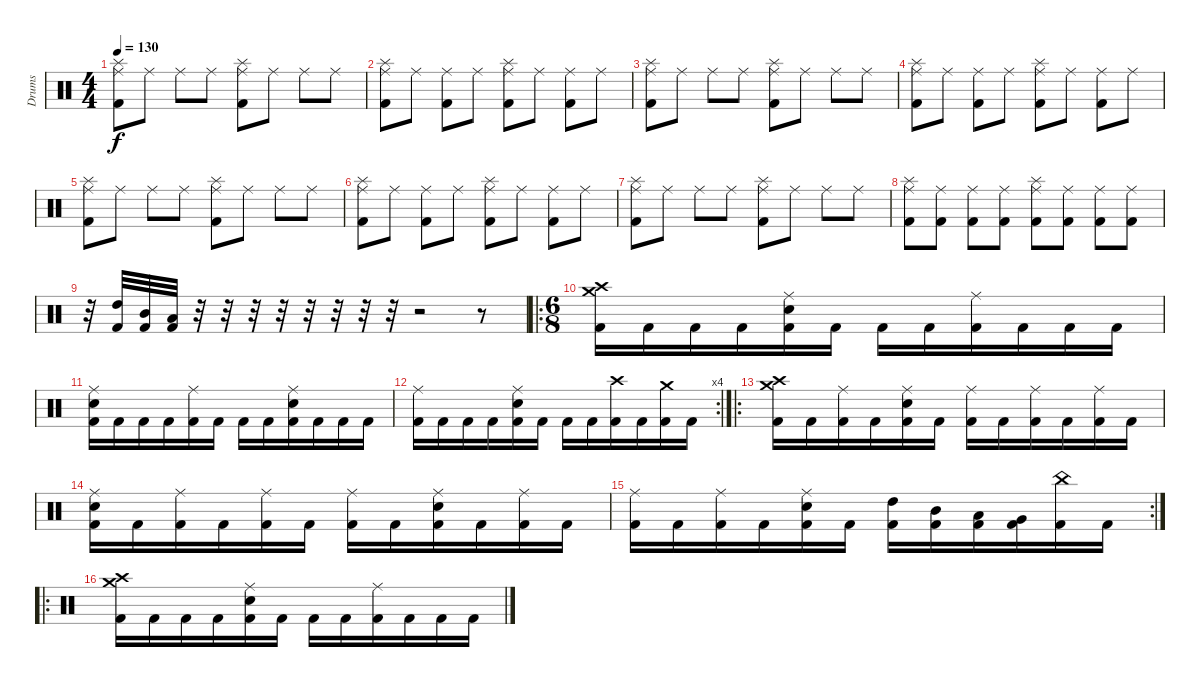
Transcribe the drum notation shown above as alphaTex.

\track ("Drums" "Drums") {instrument percussion}
\staff {score}
\articulation defaults
\ts (4 4)
\tempo 130
\clef neutral
\ks c
("Splash (hit)" "Ride (middle)" "Kick (hit) 2").8{dy f} "Ride (middle)".8 "Ride (middle)".8 "Ride (middle)".8 ("Splash (hit)" "Ride (middle)" "Kick (hit) 2").8 "Ride (middle)".8 "Ride (middle)".8 "Ride (middle)".8 |
("Splash (hit)" "Ride (middle)" "Kick (hit) 2").8 "Ride (middle)".8 ("Ride (middle)" "Kick (hit) 2").8 "Ride (middle)".8 ("Splash (hit)" "Ride (middle)" "Kick (hit) 2").8 "Ride (middle)".8 ("Ride (middle)" "Kick (hit) 2").8 "Ride (middle)".8 |
("Splash (hit)" "Ride (middle)" "Kick (hit) 2").8 "Ride (middle)".8 "Ride (middle)".8 "Ride (middle)".8 ("Splash (hit)" "Ride (middle)" "Kick (hit) 2").8 "Ride (middle)".8 "Ride (middle)".8 "Ride (middle)".8 |
("Splash (hit)" "Ride (middle)" "Kick (hit) 2").8 "Ride (middle)".8 ("Ride (middle)" "Kick (hit) 2").8 "Ride (middle)".8 ("Splash (hit)" "Ride (middle)" "Kick (hit) 2").8 "Ride (middle)".8 ("Ride (middle)" "Kick (hit) 2").8 "Ride (middle)".8 |
("Splash (hit)" "Ride (middle)" "Kick (hit) 2").8 "Ride (middle)".8 "Ride (middle)".8 "Ride (middle)".8 ("Splash (hit)" "Ride (middle)" "Kick (hit) 2").8 "Ride (middle)".8 "Ride (middle)".8 "Ride (middle)".8 |
("Splash (hit)" "Ride (middle)" "Kick (hit) 2").8 "Ride (middle)".8 ("Ride (middle)" "Kick (hit) 2").8 "Ride (middle)".8 ("Splash (hit)" "Ride (middle)" "Kick (hit) 2").8 "Ride (middle)".8 ("Ride (middle)" "Kick (hit) 2").8 "Ride (middle)".8 |
("Splash (hit)" "Ride (middle)" "Kick (hit) 2").8 "Ride (middle)".8 "Ride (middle)".8 "Ride (middle)".8 ("Splash (hit)" "Ride (middle)" "Kick (hit) 2").8 "Ride (middle)".8 "Ride (middle)".8 "Ride (middle)".8 |
("Splash (hit)" "Ride (middle)" "Kick (hit) 2").8 ("Ride (middle)" "Kick (hit) 2").8 ("Ride (middle)" "Kick (hit) 2").8 ("Ride (middle)" "Kick (hit) 2").8 ("Splash (hit)" "Ride (middle)" "Kick (hit) 2").8 ("Ride (middle)" "Kick (hit) 2").8 ("Ride (middle)" "Kick (hit) 2").8 ("Ride (middle)" "Kick (hit) 2").8 |
r.32 ("High Tom (hit)" "Kick (hit) 2").32 ("Mid Tom (hit)" "Kick (hit) 2").32 ("Low Tom (hit)" "Kick (hit) 2").32 r.32 r.32 r.32 r.32 r.32 r.32 r.32 r.32 r.2 r.8 |
\ro
\ts (6 8)
("Crash medium (hit)" "Crash high (hit)" "Kick (hit) 2").16 "Kick (hit) 2".16 "Kick (hit) 2".16 "Kick (hit) 2".16 ("Ride (middle)" "Snare (hit) 2" "Kick (hit) 2").16 "Kick (hit) 2".16 "Kick (hit) 2".16 "Kick (hit) 2".16 ("Ride (middle)" "Kick (hit) 2").16 "Kick (hit) 2".16 "Kick (hit) 2".16 "Kick (hit) 2".16 |
("Ride (middle)" "Snare (hit) 2" "Kick (hit) 2").16 "Kick (hit) 2".16 "Kick (hit) 2".16 "Kick (hit) 2".16 ("Ride (middle)" "Kick (hit) 2").16 "Kick (hit) 2".16 "Kick (hit) 2".16 "Kick (hit) 2".16 ("Ride (middle)" "Snare (hit) 2" "Kick (hit) 2").16 "Kick (hit) 2".16 "Kick (hit) 2".16 "Kick (hit) 2".16 |
\rc 4
("Ride (middle)" "Kick (hit) 2").16 "Kick (hit) 2".16 "Kick (hit) 2".16 "Kick (hit) 2".16 ("Ride (middle)" "Snare (hit) 2" "Kick (hit) 2").16 "Kick (hit) 2".16 "Kick (hit) 2".16 "Kick (hit) 2".16 ("Crash high (hit)" "Kick (hit) 2").16 "Kick (hit) 2".16 ("Crash medium (hit)" "Kick (hit) 2").16 "Kick (hit) 2".16 |
\ro
("Crash medium (hit)" "Crash high (hit)" "Kick (hit) 2").16 "Kick (hit) 2".16 ("Ride (middle)" "Kick (hit) 2").16 "Kick (hit) 2".16 ("Ride (middle)" "Snare (hit) 2" "Kick (hit) 2").16 "Kick (hit) 2".16 ("Ride (middle)" "Kick (hit) 2").16 "Kick (hit) 2".16 ("Ride (middle)" "Kick (hit) 2").16 "Kick (hit) 2".16 ("Ride (middle)" "Kick (hit) 2").16 "Kick (hit) 2".16 |
("Ride (middle)" "Snare (hit) 2" "Kick (hit) 2").16 "Kick (hit) 2".16 ("Ride (middle)" "Kick (hit) 2").16 "Kick (hit) 2".16 ("Ride (middle)" "Kick (hit) 2").16 "Kick (hit) 2".16 ("Ride (middle)" "Kick (hit) 2").16 "Kick (hit) 2".16 ("Ride (middle)" "Snare (hit) 2" "Kick (hit) 2").16 "Kick (hit) 2".16 ("Ride (middle)" "Kick (hit) 2").16 "Kick (hit) 2".16 |
\rc 2
("Ride (middle)" "Kick (hit) 2").16 "Kick (hit) 2".16 ("Ride (middle)" "Kick (hit) 2").16 "Kick (hit) 2".16 ("Ride (middle)" "Snare (hit) 2" "Kick (hit) 2").16 "Kick (hit) 2".16 ("High Tom (hit)" "Kick (hit) 2").16 ("Mid Tom (hit)" "Kick (hit) 2").16 ("Low Tom (hit)" "Kick (hit) 2").16 ("Very Low Tom (hit)" "Kick (hit) 2").16 ("China (hit)" "Kick (hit) 2").16 "Kick (hit) 2".16 |
\ro
("Crash medium (hit)" "Crash high (hit)" "Kick (hit) 2").16 "Kick (hit) 2".16 "Kick (hit) 2".16 "Kick (hit) 2".16 ("Ride (middle)" "Snare (hit) 2" "Kick (hit) 2").16 "Kick (hit) 2".16 "Kick (hit) 2".16 "Kick (hit) 2".16 ("Ride (middle)" "Kick (hit) 2").16 "Kick (hit) 2".16 "Kick (hit) 2".16 "Kick (hit) 2".16
